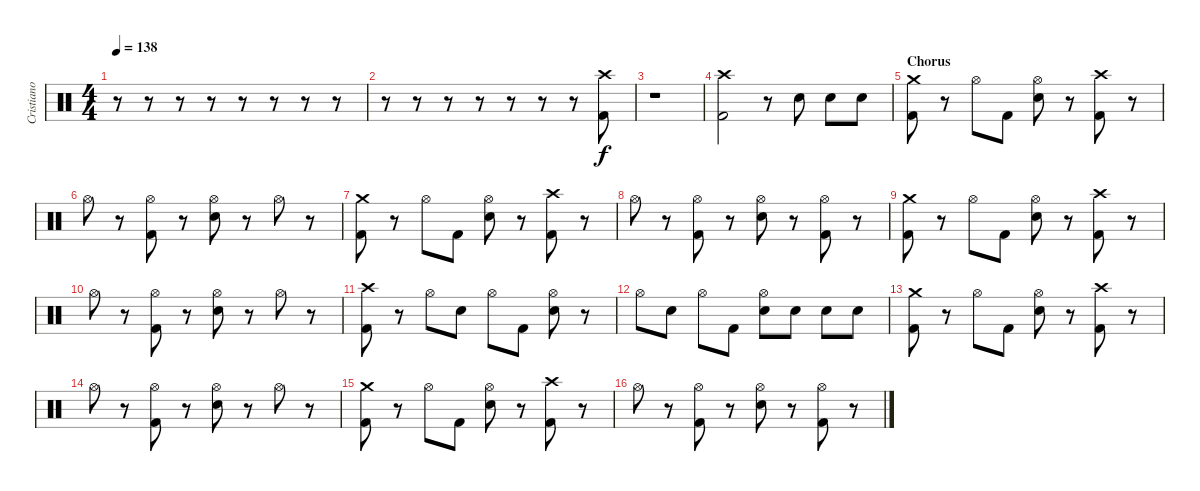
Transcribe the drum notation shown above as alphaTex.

\track ("Cristiano Mozatti" "Cristiano ") {instrument percussion}
\staff {score}
\articulation defaults
\ts (4 4)
\tempo 138
\clef neutral
\ks c
r.8{dy f} r.8 r.8 r.8 r.8 r.8 r.8 r.8 |
r.8 r.8 r.8 r.8 r.8 r.8 r.8 ("Crash high (hit)" "Kick (hit) 2").8 |
r.1 |
("Crash high (hit)" "Kick (hit) 2").2 r.8 "Snare (hit) 2".8 "Snare (hit) 2".8 "Snare (hit) 2".8 |
\section ("" "Chorus")
("Crash medium (hit)" "Kick (hit) 2").8 r.8 "Hi-Hat (open)".8 "Kick (hit) 2".8 ("Hi-Hat (open)" "Snare (hit) 2").8 r.8 ("Crash high (hit)" "Kick (hit) 2").8 r.8 |
"Hi-Hat (open)".8 r.8 ("Hi-Hat (open)" "Kick (hit) 2").8 r.8 ("Hi-Hat (open)" "Snare (hit) 2").8 r.8 "Hi-Hat (open)".8 r.8 |
("Crash medium (hit)" "Kick (hit) 2").8 r.8 "Hi-Hat (open)".8 "Kick (hit) 2".8 ("Hi-Hat (open)" "Snare (hit) 2").8 r.8 ("Crash high (hit)" "Kick (hit) 2").8 r.8 |
"Hi-Hat (open)".8 r.8 ("Hi-Hat (open)" "Kick (hit) 2").8 r.8 ("Hi-Hat (open)" "Snare (hit) 2").8 r.8 ("Hi-Hat (open)" "Kick (hit) 2").8 r.8 |
("Crash medium (hit)" "Kick (hit) 2").8 r.8 "Hi-Hat (open)".8 "Kick (hit) 2".8 ("Hi-Hat (open)" "Snare (hit) 2").8 r.8 ("Crash high (hit)" "Kick (hit) 2").8 r.8 |
"Hi-Hat (open)".8 r.8 ("Hi-Hat (open)" "Kick (hit) 2").8 r.8 ("Hi-Hat (open)" "Snare (hit) 2").8 r.8 "Hi-Hat (open)".8 r.8 |
("Crash high (hit)" "Kick (hit) 2").8 r.8 "Hi-Hat (open)".8 "Snare (hit) 2".8 "Hi-Hat (open)".8 "Kick (hit) 2".8 ("Hi-Hat (open)" "Snare (hit) 2").8 r.8 |
"Hi-Hat (open)".8 "Snare (hit) 2".8 "Hi-Hat (open)".8 "Kick (hit) 2".8 ("Hi-Hat (open)" "Snare (hit) 2").8 "Snare (hit) 2".8 "Snare (hit) 2".8 "Snare (hit) 2".8 |
("Crash medium (hit)" "Kick (hit) 2").8 r.8 "Hi-Hat (open)".8 "Kick (hit) 2".8 ("Hi-Hat (open)" "Snare (hit) 2").8 r.8 ("Crash high (hit)" "Kick (hit) 2").8 r.8 |
"Hi-Hat (open)".8 r.8 ("Hi-Hat (open)" "Kick (hit) 2").8 r.8 ("Hi-Hat (open)" "Snare (hit) 2").8 r.8 "Hi-Hat (open)".8 r.8 |
("Crash medium (hit)" "Kick (hit) 2").8 r.8 "Hi-Hat (open)".8 "Kick (hit) 2".8 ("Hi-Hat (open)" "Snare (hit) 2").8 r.8 ("Crash high (hit)" "Kick (hit) 2").8 r.8 |
"Hi-Hat (open)".8 r.8 ("Hi-Hat (open)" "Kick (hit) 2").8 r.8 ("Hi-Hat (open)" "Snare (hit) 2").8 r.8 ("Hi-Hat (open)" "Kick (hit) 2").8 r.8
